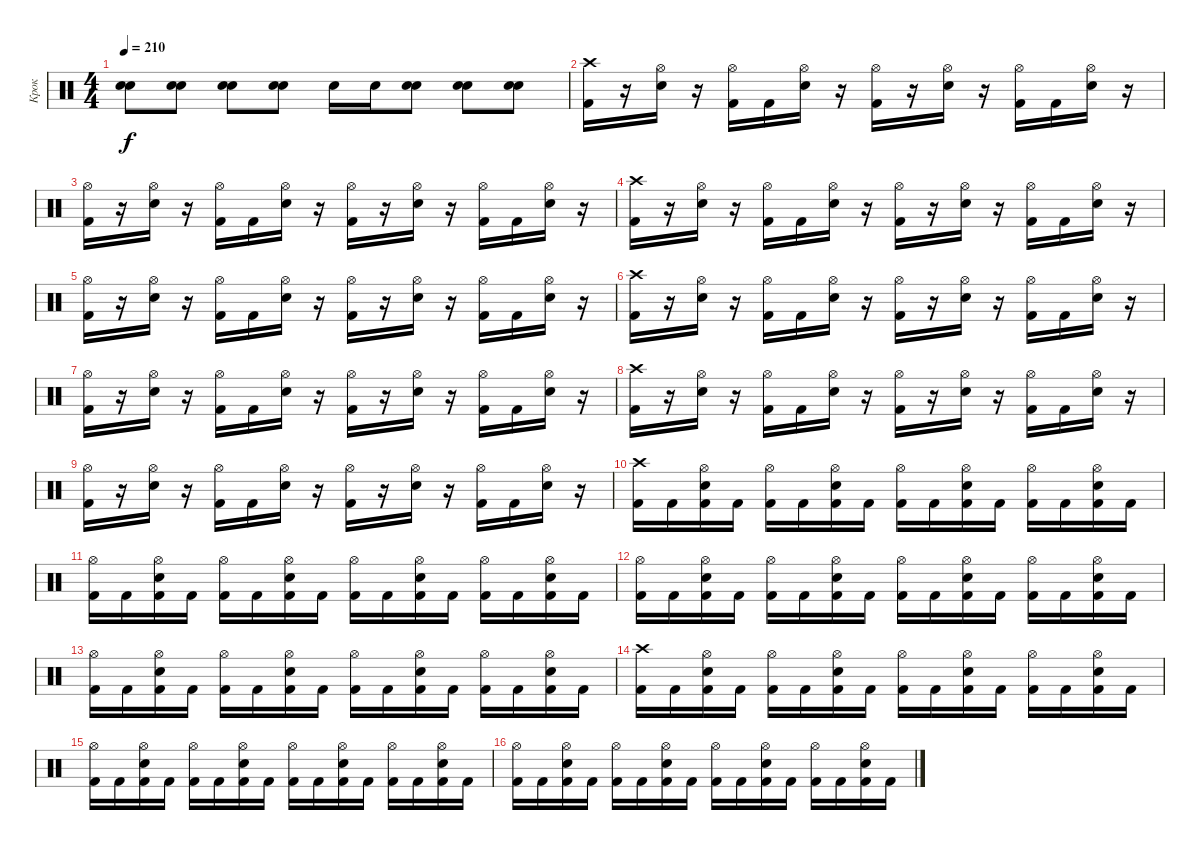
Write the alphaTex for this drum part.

\track ("Крок" "Крок") {instrument percussion}
\staff {score}
\articulation defaults
\ts (4 4)
\tempo 210
\clef neutral
\ks c
("Electric Snare (hit)" "Electric Snare (hit)").8{dy f} ("Electric Snare (hit)" "Electric Snare (hit)").8 ("Electric Snare (hit)" "Electric Snare (hit)").8 ("Electric Snare (hit)" "Electric Snare (hit)").8 "Electric Snare (hit)".16 "Electric Snare (hit)".16 ("Electric Snare (hit)" "Electric Snare (hit)").8 ("Electric Snare (hit)" "Electric Snare (hit)").8 ("Electric Snare (hit)" "Electric Snare (hit)").8 |
("Crash high (hit)" "Kick (hit) 2").16 r.16 ("Hi-Hat (open)" "Electric Snare (hit)").16 r.16 ("Hi-Hat (open)" "Kick (hit) 2").16 "Kick (hit) 2".16 ("Hi-Hat (open)" "Electric Snare (hit)").16 r.16 ("Hi-Hat (open)" "Kick (hit) 2").16 r.16 ("Hi-Hat (open)" "Electric Snare (hit)").16 r.16 ("Hi-Hat (open)" "Kick (hit) 2").16 "Kick (hit) 2".16 ("Hi-Hat (open)" "Electric Snare (hit)").16 r.16 |
("Hi-Hat (open)" "Kick (hit) 2").16 r.16 ("Hi-Hat (open)" "Electric Snare (hit)").16 r.16 ("Hi-Hat (open)" "Kick (hit) 2").16 "Kick (hit) 2".16 ("Hi-Hat (open)" "Electric Snare (hit)").16 r.16 ("Hi-Hat (open)" "Kick (hit) 2").16 r.16 ("Hi-Hat (open)" "Electric Snare (hit)").16 r.16 ("Hi-Hat (open)" "Kick (hit) 2").16 "Kick (hit) 2".16 ("Hi-Hat (open)" "Electric Snare (hit)").16 r.16 |
("Crash high (hit)" "Kick (hit) 2").16 r.16 ("Hi-Hat (open)" "Electric Snare (hit)").16 r.16 ("Hi-Hat (open)" "Kick (hit) 2").16 "Kick (hit) 2".16 ("Hi-Hat (open)" "Electric Snare (hit)").16 r.16 ("Hi-Hat (open)" "Kick (hit) 2").16 r.16 ("Hi-Hat (open)" "Electric Snare (hit)").16 r.16 ("Hi-Hat (open)" "Kick (hit) 2").16 "Kick (hit) 2".16 ("Hi-Hat (open)" "Electric Snare (hit)").16 r.16 |
("Hi-Hat (open)" "Kick (hit) 2").16 r.16 ("Hi-Hat (open)" "Electric Snare (hit)").16 r.16 ("Hi-Hat (open)" "Kick (hit) 2").16 "Kick (hit) 2".16 ("Hi-Hat (open)" "Electric Snare (hit)").16 r.16 ("Hi-Hat (open)" "Kick (hit) 2").16 r.16 ("Hi-Hat (open)" "Electric Snare (hit)").16 r.16 ("Hi-Hat (open)" "Kick (hit) 2").16 "Kick (hit) 2".16 ("Hi-Hat (open)" "Electric Snare (hit)").16 r.16 |
("Crash high (hit)" "Kick (hit) 2").16 r.16 ("Hi-Hat (open)" "Electric Snare (hit)").16 r.16 ("Hi-Hat (open)" "Kick (hit) 2").16 "Kick (hit) 2".16 ("Hi-Hat (open)" "Electric Snare (hit)").16 r.16 ("Hi-Hat (open)" "Kick (hit) 2").16 r.16 ("Hi-Hat (open)" "Electric Snare (hit)").16 r.16 ("Hi-Hat (open)" "Kick (hit) 2").16 "Kick (hit) 2".16 ("Hi-Hat (open)" "Electric Snare (hit)").16 r.16 |
("Hi-Hat (open)" "Kick (hit) 2").16 r.16 ("Hi-Hat (open)" "Electric Snare (hit)").16 r.16 ("Hi-Hat (open)" "Kick (hit) 2").16 "Kick (hit) 2".16 ("Hi-Hat (open)" "Electric Snare (hit)").16 r.16 ("Hi-Hat (open)" "Kick (hit) 2").16 r.16 ("Hi-Hat (open)" "Electric Snare (hit)").16 r.16 ("Hi-Hat (open)" "Kick (hit) 2").16 "Kick (hit) 2".16 ("Hi-Hat (open)" "Electric Snare (hit)").16 r.16 |
("Crash high (hit)" "Kick (hit) 2").16 r.16 ("Hi-Hat (open)" "Electric Snare (hit)").16 r.16 ("Hi-Hat (open)" "Kick (hit) 2").16 "Kick (hit) 2".16 ("Hi-Hat (open)" "Electric Snare (hit)").16 r.16 ("Hi-Hat (open)" "Kick (hit) 2").16 r.16 ("Hi-Hat (open)" "Electric Snare (hit)").16 r.16 ("Hi-Hat (open)" "Kick (hit) 2").16 "Kick (hit) 2".16 ("Hi-Hat (open)" "Electric Snare (hit)").16 r.16 |
("Hi-Hat (open)" "Kick (hit) 2").16 r.16 ("Hi-Hat (open)" "Electric Snare (hit)").16 r.16 ("Hi-Hat (open)" "Kick (hit) 2").16 "Kick (hit) 2".16 ("Hi-Hat (open)" "Electric Snare (hit)").16 r.16 ("Hi-Hat (open)" "Kick (hit) 2").16 r.16 ("Hi-Hat (open)" "Electric Snare (hit)").16 r.16 ("Hi-Hat (open)" "Kick (hit) 2").16 "Kick (hit) 2".16 ("Hi-Hat (open)" "Electric Snare (hit)").16 r.16 |
("Crash high (hit)" "Kick (hit) 2").16 "Kick (hit) 2".16 ("Hi-Hat (open)" "Electric Snare (hit)" "Kick (hit) 2").16 "Kick (hit) 2".16 ("Hi-Hat (open)" "Kick (hit) 2").16 "Kick (hit) 2".16 ("Hi-Hat (open)" "Electric Snare (hit)" "Kick (hit) 2").16 "Kick (hit) 2".16 ("Hi-Hat (open)" "Kick (hit) 2").16 "Kick (hit) 2".16 ("Hi-Hat (open)" "Electric Snare (hit)" "Kick (hit) 2").16 "Kick (hit) 2".16 ("Hi-Hat (open)" "Kick (hit) 2").16 "Kick (hit) 2".16 ("Hi-Hat (open)" "Electric Snare (hit)" "Kick (hit) 2").16 "Kick (hit) 2".16 |
("Hi-Hat (open)" "Kick (hit) 2").16 "Kick (hit) 2".16 ("Hi-Hat (open)" "Electric Snare (hit)" "Kick (hit) 2").16 "Kick (hit) 2".16 ("Hi-Hat (open)" "Kick (hit) 2").16 "Kick (hit) 2".16 ("Hi-Hat (open)" "Electric Snare (hit)" "Kick (hit) 2").16 "Kick (hit) 2".16 ("Hi-Hat (open)" "Kick (hit) 2").16 "Kick (hit) 2".16 ("Hi-Hat (open)" "Electric Snare (hit)" "Kick (hit) 2").16 "Kick (hit) 2".16 ("Hi-Hat (open)" "Kick (hit) 2").16 "Kick (hit) 2".16 ("Hi-Hat (open)" "Electric Snare (hit)" "Kick (hit) 2").16 "Kick (hit) 2".16 |
("Hi-Hat (open)" "Kick (hit) 2").16 "Kick (hit) 2".16 ("Hi-Hat (open)" "Electric Snare (hit)" "Kick (hit) 2").16 "Kick (hit) 2".16 ("Hi-Hat (open)" "Kick (hit) 2").16 "Kick (hit) 2".16 ("Hi-Hat (open)" "Electric Snare (hit)" "Kick (hit) 2").16 "Kick (hit) 2".16 ("Hi-Hat (open)" "Kick (hit) 2").16 "Kick (hit) 2".16 ("Hi-Hat (open)" "Electric Snare (hit)" "Kick (hit) 2").16 "Kick (hit) 2".16 ("Hi-Hat (open)" "Kick (hit) 2").16 "Kick (hit) 2".16 ("Hi-Hat (open)" "Electric Snare (hit)" "Kick (hit) 2").16 "Kick (hit) 2".16 |
("Hi-Hat (open)" "Kick (hit) 2").16 "Kick (hit) 2".16 ("Hi-Hat (open)" "Electric Snare (hit)" "Kick (hit) 2").16 "Kick (hit) 2".16 ("Hi-Hat (open)" "Kick (hit) 2").16 "Kick (hit) 2".16 ("Hi-Hat (open)" "Electric Snare (hit)" "Kick (hit) 2").16 "Kick (hit) 2".16 ("Hi-Hat (open)" "Kick (hit) 2").16 "Kick (hit) 2".16 ("Hi-Hat (open)" "Electric Snare (hit)" "Kick (hit) 2").16 "Kick (hit) 2".16 ("Hi-Hat (open)" "Kick (hit) 2").16 "Kick (hit) 2".16 ("Hi-Hat (open)" "Electric Snare (hit)" "Kick (hit) 2").16 "Kick (hit) 2".16 |
("Crash high (hit)" "Kick (hit) 2").16 "Kick (hit) 2".16 ("Hi-Hat (open)" "Electric Snare (hit)" "Kick (hit) 2").16 "Kick (hit) 2".16 ("Hi-Hat (open)" "Kick (hit) 2").16 "Kick (hit) 2".16 ("Hi-Hat (open)" "Electric Snare (hit)" "Kick (hit) 2").16 "Kick (hit) 2".16 ("Hi-Hat (open)" "Kick (hit) 2").16 "Kick (hit) 2".16 ("Hi-Hat (open)" "Electric Snare (hit)" "Kick (hit) 2").16 "Kick (hit) 2".16 ("Hi-Hat (open)" "Kick (hit) 2").16 "Kick (hit) 2".16 ("Hi-Hat (open)" "Electric Snare (hit)" "Kick (hit) 2").16 "Kick (hit) 2".16 |
("Hi-Hat (open)" "Kick (hit) 2").16 "Kick (hit) 2".16 ("Hi-Hat (open)" "Electric Snare (hit)" "Kick (hit) 2").16 "Kick (hit) 2".16 ("Hi-Hat (open)" "Kick (hit) 2").16 "Kick (hit) 2".16 ("Hi-Hat (open)" "Electric Snare (hit)" "Kick (hit) 2").16 "Kick (hit) 2".16 ("Hi-Hat (open)" "Kick (hit) 2").16 "Kick (hit) 2".16 ("Hi-Hat (open)" "Electric Snare (hit)" "Kick (hit) 2").16 "Kick (hit) 2".16 ("Hi-Hat (open)" "Kick (hit) 2").16 "Kick (hit) 2".16 ("Hi-Hat (open)" "Electric Snare (hit)" "Kick (hit) 2").16 "Kick (hit) 2".16 |
("Hi-Hat (open)" "Kick (hit) 2").16 "Kick (hit) 2".16 ("Hi-Hat (open)" "Electric Snare (hit)" "Kick (hit) 2").16 "Kick (hit) 2".16 ("Hi-Hat (open)" "Kick (hit) 2").16 "Kick (hit) 2".16 ("Hi-Hat (open)" "Electric Snare (hit)" "Kick (hit) 2").16 "Kick (hit) 2".16 ("Hi-Hat (open)" "Kick (hit) 2").16 "Kick (hit) 2".16 ("Hi-Hat (open)" "Electric Snare (hit)" "Kick (hit) 2").16 "Kick (hit) 2".16 ("Hi-Hat (open)" "Kick (hit) 2").16 "Kick (hit) 2".16 ("Hi-Hat (open)" "Electric Snare (hit)" "Kick (hit) 2").16 "Kick (hit) 2".16
